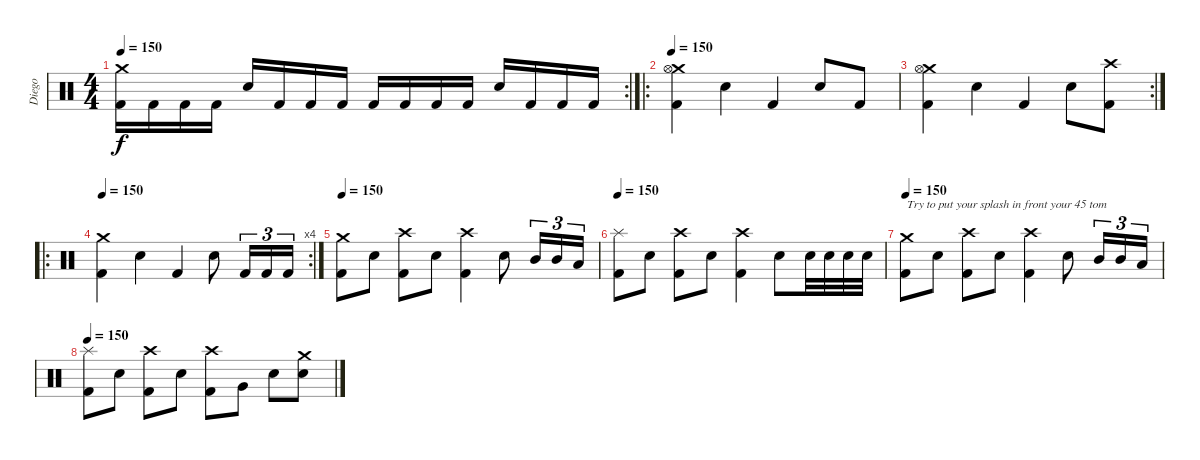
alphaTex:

\track ("Diego" "Diego") {instrument percussion}
\staff {score}
\articulation defaults
\rc 2
\ts (4 4)
\tempo 150
\clef neutral
\ks c
("Crash medium (hit)" "Kick (hit) 2").16{dy f} "Kick (hit) 2".16 "Kick (hit) 2".16 "Kick (hit) 2".16 "Snare (hit) 2".16 "Kick (hit) 2".16 "Kick (hit) 2".16 "Kick (hit) 2".16 "Kick (hit) 2".16 "Kick (hit) 2".16 "Kick (hit) 2".16 "Kick (hit) 2".16 "Snare (hit) 2".16 "Kick (hit) 2".16 "Kick (hit) 2".16 "Kick (hit) 2".16 |
\ro
\tempo 150
("Crash medium (hit)" "Hi-Hat (open)" "Kick (hit) 2").4 "Snare (hit) 2".4 "Kick (hit) 2".4 "Snare (hit) 2".8 "Kick (hit) 2".8 |
\rc 2
("Crash medium (hit)" "Hi-Hat (open)" "Kick (hit) 2").4 "Snare (hit) 2".4 "Kick (hit) 2".4 "Snare (hit) 2".8 ("Crash high (hit)" "Kick (hit) 2").8 |
\ro
\rc 4
\tempo 150
("Crash medium (hit)" "Kick (hit) 2").4 "Snare (hit) 2".4 "Kick (hit) 2".4 "Snare (hit) 2".8 "Kick (hit) 2".16{tu (3 2)} "Kick (hit) 2".16{tu (3 2)} "Kick (hit) 2".16{tu (3 2)} |
\tempo 150
("Crash medium (hit)" "Kick (hit) 2").8 "Snare (hit) 2".8 ("Crash high (hit)" "Kick (hit) 2").8 "Snare (hit) 2".8 ("Crash high (hit)" "Kick (hit) 2").4 "Snare (hit) 2".8 "Mid Tom (hit)".16{tu (3 2)} "Mid Tom (hit)".16{tu (3 2)} "Low Tom (hit)".16{tu (3 2)} |
\tempo 150
("Splash (hit)" "Kick (hit) 2").8 "Snare (hit) 2".8 ("Crash high (hit)" "Kick (hit) 2").8 "Snare (hit) 2".8 ("Crash high (hit)" "Kick (hit) 2").4 "Snare (hit) 2".8 "Snare (hit) 2".32 "Snare (hit) 2".32 "Snare (hit) 2".32 "Snare (hit) 2".32 |
\tempo 150
("Crash medium (hit)" "Kick (hit) 2").8{txt "Try to put your splash in front your 45 tom"} "Snare (hit) 2".8 ("Crash high (hit)" "Kick (hit) 2").8 "Snare (hit) 2".8 ("Crash high (hit)" "Kick (hit) 2").4 "Snare (hit) 2".8 "Mid Tom (hit)".16{tu (3 2)} "Mid Tom (hit)".16{tu (3 2)} "Low Tom (hit)".16{tu (3 2)} |
\tempo 150
("Splash (hit)" "Kick (hit) 2").8 "Snare (hit) 2".8 ("Crash high (hit)" "Kick (hit) 2").8 "Snare (hit) 2".8 ("Crash high (hit)" "Kick (hit) 2").8 "Very Low Tom (hit)".8 "Snare (hit) 2".8 ("Crash medium (hit)" "Snare (hit) 2").8
